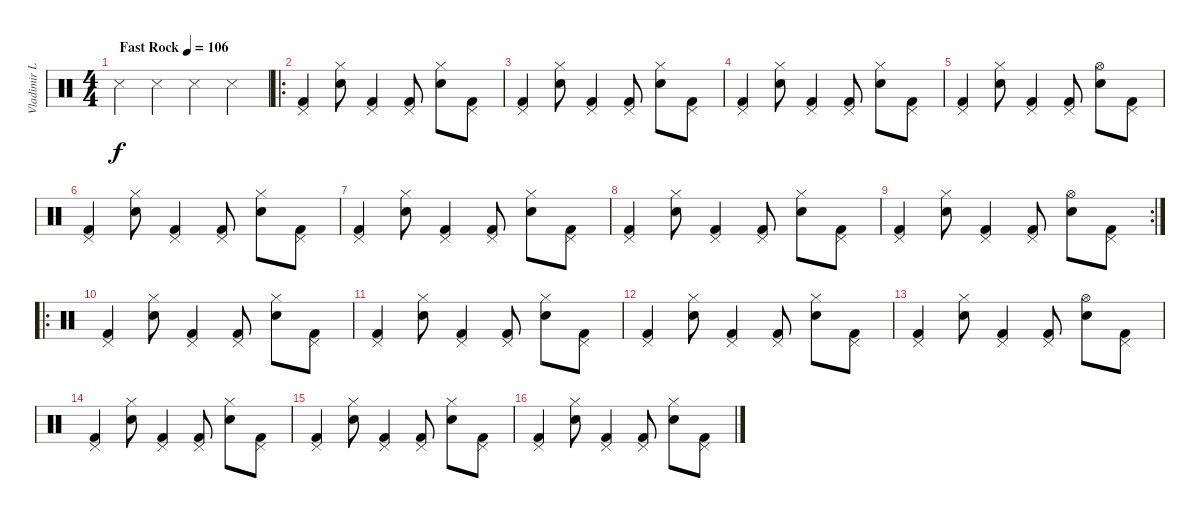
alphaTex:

\track ("Vladimir L." "Vladimir L") {solo instrument percussion}
\staff {score}
\articulation defaults
\ts (4 4)
\tempo (106 "Fast Rock")
\clef neutral
\ks c "Snare (side stick) 3".4{dy f} "Snare (side stick) 3".4 "Snare (side stick) 3".4 "Snare (side stick) 3".4
|
\ro
("Kick (hit) 2" "Pedal Hi-Hat (hit)").4 ("Electric Snare (hit)" "Hi-Hat (closed)").8 ("Kick (hit) 2" "Pedal Hi-Hat (hit)").4 ("Kick (hit) 2" "Pedal Hi-Hat (hit)").8 ("Electric Snare (hit)" "Hi-Hat (closed)").8 ("Kick (hit) 2" "Pedal Hi-Hat (hit)").8 |
("Kick (hit) 2" "Pedal Hi-Hat (hit)").4 ("Electric Snare (hit)" "Hi-Hat (closed)").8 ("Kick (hit) 2" "Pedal Hi-Hat (hit)").4 ("Kick (hit) 2" "Pedal Hi-Hat (hit)").8 ("Electric Snare (hit)" "Hi-Hat (closed)").8 ("Kick (hit) 2" "Pedal Hi-Hat (hit)").8 |
("Kick (hit) 2" "Pedal Hi-Hat (hit)").4 ("Electric Snare (hit)" "Hi-Hat (closed)").8 ("Kick (hit) 2" "Pedal Hi-Hat (hit)").4 ("Kick (hit) 2" "Pedal Hi-Hat (hit)").8 ("Electric Snare (hit)" "Hi-Hat (closed)").8 ("Kick (hit) 2" "Pedal Hi-Hat (hit)").8 |
("Kick (hit) 2" "Pedal Hi-Hat (hit)").4 ("Electric Snare (hit)" "Hi-Hat (closed)").8 ("Kick (hit) 2" "Pedal Hi-Hat (hit)").4 ("Kick (hit) 2" "Pedal Hi-Hat (hit)").8 ("Electric Snare (hit)" "Hi-Hat (open)").8 ("Kick (hit) 2" "Pedal Hi-Hat (hit)").8 |
("Kick (hit) 2" "Pedal Hi-Hat (hit)").4 ("Electric Snare (hit)" "Hi-Hat (closed)").8 ("Kick (hit) 2" "Pedal Hi-Hat (hit)").4 ("Kick (hit) 2" "Pedal Hi-Hat (hit)").8 ("Electric Snare (hit)" "Hi-Hat (closed)").8 ("Kick (hit) 2" "Pedal Hi-Hat (hit)").8 |
("Kick (hit) 2" "Pedal Hi-Hat (hit)").4 ("Electric Snare (hit)" "Hi-Hat (closed)").8 ("Kick (hit) 2" "Pedal Hi-Hat (hit)").4 ("Kick (hit) 2" "Pedal Hi-Hat (hit)").8 ("Electric Snare (hit)" "Hi-Hat (closed)").8 ("Kick (hit) 2" "Pedal Hi-Hat (hit)").8 |
("Kick (hit) 2" "Pedal Hi-Hat (hit)").4 ("Electric Snare (hit)" "Hi-Hat (closed)").8 ("Kick (hit) 2" "Pedal Hi-Hat (hit)").4 ("Kick (hit) 2" "Pedal Hi-Hat (hit)").8 ("Electric Snare (hit)" "Hi-Hat (closed)").8 ("Kick (hit) 2" "Pedal Hi-Hat (hit)").8 |
\rc 2
("Kick (hit) 2" "Pedal Hi-Hat (hit)").4 ("Electric Snare (hit)" "Hi-Hat (closed)").8 ("Kick (hit) 2" "Pedal Hi-Hat (hit)").4 ("Kick (hit) 2" "Pedal Hi-Hat (hit)").8 ("Electric Snare (hit)" "Hi-Hat (open)").8 ("Kick (hit) 2" "Pedal Hi-Hat (hit)").8 |
\ro
("Kick (hit) 2" "Pedal Hi-Hat (hit)").4 ("Electric Snare (hit)" "Hi-Hat (closed)").8 ("Kick (hit) 2" "Pedal Hi-Hat (hit)").4 ("Kick (hit) 2" "Pedal Hi-Hat (hit)").8 ("Electric Snare (hit)" "Hi-Hat (closed)").8 ("Kick (hit) 2" "Pedal Hi-Hat (hit)").8 |
("Kick (hit) 2" "Pedal Hi-Hat (hit)").4 ("Electric Snare (hit)" "Hi-Hat (closed)").8 ("Kick (hit) 2" "Pedal Hi-Hat (hit)").4 ("Kick (hit) 2" "Pedal Hi-Hat (hit)").8 ("Electric Snare (hit)" "Hi-Hat (closed)").8 ("Kick (hit) 2" "Pedal Hi-Hat (hit)").8 |
("Kick (hit) 2" "Pedal Hi-Hat (hit)").4 ("Electric Snare (hit)" "Hi-Hat (closed)").8 ("Kick (hit) 2" "Pedal Hi-Hat (hit)").4 ("Kick (hit) 2" "Pedal Hi-Hat (hit)").8 ("Electric Snare (hit)" "Hi-Hat (closed)").8 ("Kick (hit) 2" "Pedal Hi-Hat (hit)").8 |
("Kick (hit) 2" "Pedal Hi-Hat (hit)").4 ("Electric Snare (hit)" "Hi-Hat (closed)").8 ("Kick (hit) 2" "Pedal Hi-Hat (hit)").4 ("Kick (hit) 2" "Pedal Hi-Hat (hit)").8 ("Electric Snare (hit)" "Hi-Hat (open)").8 ("Kick (hit) 2" "Pedal Hi-Hat (hit)").8 |
("Kick (hit) 2" "Pedal Hi-Hat (hit)").4 ("Electric Snare (hit)" "Hi-Hat (closed)").8 ("Kick (hit) 2" "Pedal Hi-Hat (hit)").4 ("Kick (hit) 2" "Pedal Hi-Hat (hit)").8 ("Electric Snare (hit)" "Hi-Hat (closed)").8 ("Kick (hit) 2" "Pedal Hi-Hat (hit)").8 |
("Kick (hit) 2" "Pedal Hi-Hat (hit)").4 ("Electric Snare (hit)" "Hi-Hat (closed)").8 ("Kick (hit) 2" "Pedal Hi-Hat (hit)").4 ("Kick (hit) 2" "Pedal Hi-Hat (hit)").8 ("Electric Snare (hit)" "Hi-Hat (closed)").8 ("Kick (hit) 2" "Pedal Hi-Hat (hit)").8 |
("Kick (hit) 2" "Pedal Hi-Hat (hit)").4 ("Electric Snare (hit)" "Hi-Hat (closed)").8 ("Kick (hit) 2" "Pedal Hi-Hat (hit)").4 ("Kick (hit) 2" "Pedal Hi-Hat (hit)").8 ("Electric Snare (hit)" "Hi-Hat (closed)").8 ("Kick (hit) 2" "Pedal Hi-Hat (hit)").8
